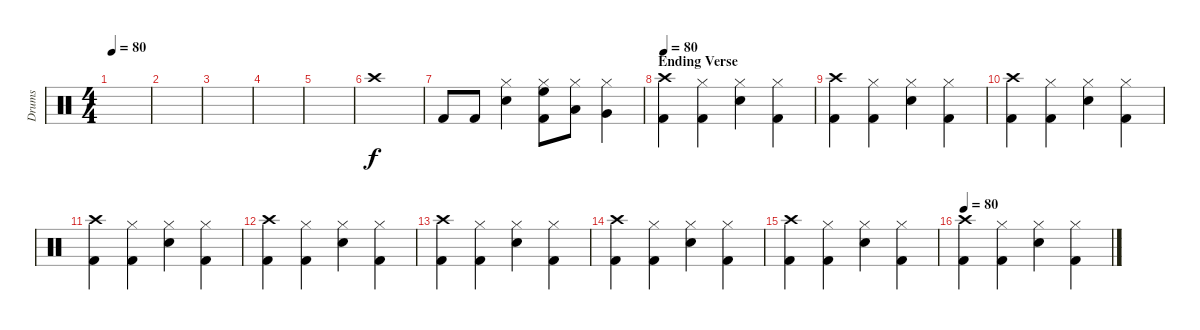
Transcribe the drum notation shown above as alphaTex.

\track ("Drums" "Drums") {instrument percussion}
\staff {score}
\articulation defaults
\ts (4 4)
\tempo 80
\clef neutral
\ks c
|
|
|
|
|
"Crash high (hit)".1 |
"Kick (hit) 2".8 "Kick (hit) 2".8 ("Hi-Hat (closed)" "Electric Snare (hit)").4 ("Hi-Hat (closed)" "High Floor Tom (hit)" "Kick (hit) 2").8 ("Low Tom (hit)" "Hi-Hat (closed)").8 ("Very Low Tom (hit)" "Hi-Hat (closed)").4 |
\section ("" "Ending Verse")
\tempo 80
("Crash high (hit)" "Kick (hit) 2").4 ("Hi-Hat (closed)" "Kick (hit) 2").4 ("Hi-Hat (closed)" "Electric Snare (hit)").4 ("Hi-Hat (closed)" "Kick (hit) 2").4 |
("Crash high (hit)" "Kick (hit) 2").4 ("Hi-Hat (closed)" "Kick (hit) 2").4 ("Hi-Hat (closed)" "Electric Snare (hit)").4 ("Hi-Hat (closed)" "Kick (hit) 2").4 |
("Crash high (hit)" "Kick (hit) 2").4 ("Hi-Hat (closed)" "Kick (hit) 2").4 ("Hi-Hat (closed)" "Electric Snare (hit)").4 ("Hi-Hat (closed)" "Kick (hit) 2").4 |
("Crash high (hit)" "Kick (hit) 2").4 ("Hi-Hat (closed)" "Kick (hit) 2").4 ("Hi-Hat (closed)" "Electric Snare (hit)").4 ("Hi-Hat (closed)" "Kick (hit) 2").4 |
("Crash high (hit)" "Kick (hit) 2").4 ("Hi-Hat (closed)" "Kick (hit) 2").4 ("Hi-Hat (closed)" "Electric Snare (hit)").4 ("Hi-Hat (closed)" "Kick (hit) 2").4 |
("Crash high (hit)" "Kick (hit) 2").4 ("Hi-Hat (closed)" "Kick (hit) 2").4 ("Hi-Hat (closed)" "Electric Snare (hit)").4 ("Hi-Hat (closed)" "Kick (hit) 2").4 |
("Crash high (hit)" "Kick (hit) 2").4 ("Hi-Hat (closed)" "Kick (hit) 2").4 ("Hi-Hat (closed)" "Electric Snare (hit)").4 ("Hi-Hat (closed)" "Kick (hit) 2").4 |
("Crash high (hit)" "Kick (hit) 2").4 ("Hi-Hat (closed)" "Kick (hit) 2").4 ("Hi-Hat (closed)" "Electric Snare (hit)").4 ("Hi-Hat (closed)" "Kick (hit) 2").4 |
\tempo 80
("Crash high (hit)" "Kick (hit) 2").4 ("Hi-Hat (closed)" "Kick (hit) 2").4 ("Hi-Hat (closed)" "Electric Snare (hit)").4 ("Hi-Hat (closed)" "Kick (hit) 2").4
